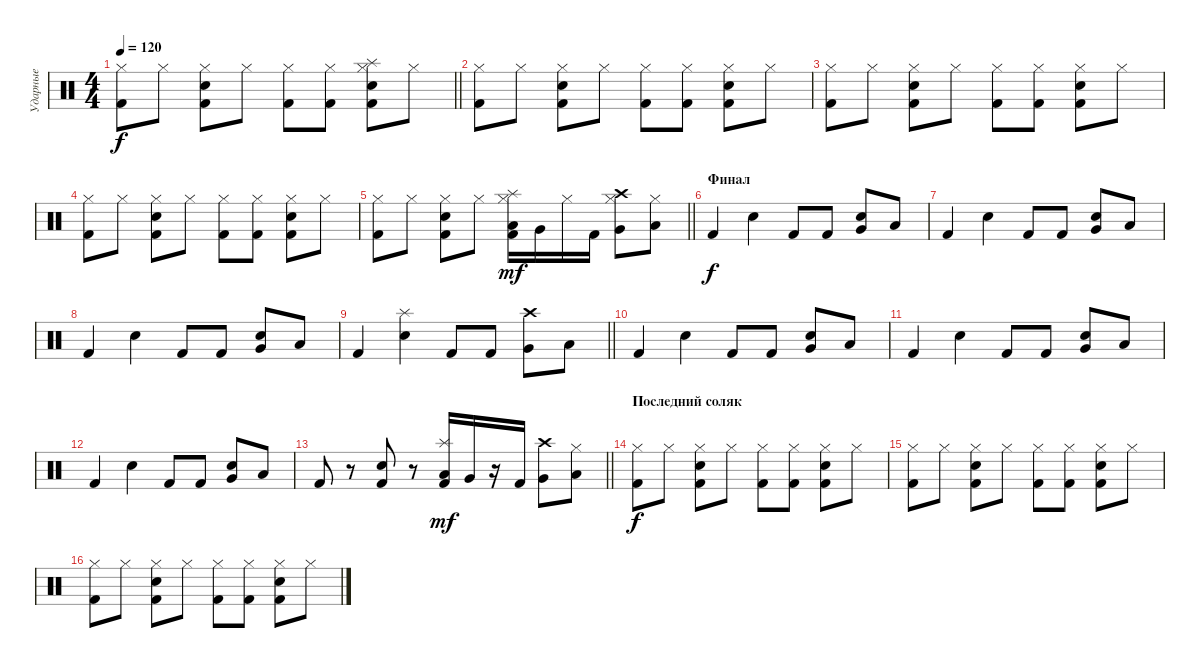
\track ("Ударные" "Ударные") {solo instrument percussion}
\staff {score}
\articulation defaults
\ts (4 4)
\tempo 120
\clef neutral
\barLineRight lightlight
\ks c
("Hi-Hat (closed)" "Kick (hit) 2").8{dy f} "Hi-Hat (closed)".8 ("Hi-Hat (closed)" "Kick (hit) 2" "Electric Snare (hit)").8 "Hi-Hat (closed)".8 ("Hi-Hat (closed)" "Kick (hit) 2").8 ("Hi-Hat (closed)" "Kick (hit) 2").8 ("Hi-Hat (closed)" "Kick (hit) 2" "Electric Snare (hit)" "Splash (hit)").8 "Hi-Hat (closed)".8 |
("Hi-Hat (closed)" "Kick (hit) 2").8 "Hi-Hat (closed)".8 ("Hi-Hat (closed)" "Kick (hit) 2" "Electric Snare (hit)").8 "Hi-Hat (closed)".8 ("Hi-Hat (closed)" "Kick (hit) 2").8 ("Hi-Hat (closed)" "Kick (hit) 2").8 ("Hi-Hat (closed)" "Kick (hit) 2" "Electric Snare (hit)").8 "Hi-Hat (closed)".8 |
("Hi-Hat (closed)" "Kick (hit) 2").8 "Hi-Hat (closed)".8 ("Hi-Hat (closed)" "Kick (hit) 2" "Electric Snare (hit)").8 "Hi-Hat (closed)".8 ("Hi-Hat (closed)" "Kick (hit) 2").8 ("Hi-Hat (closed)" "Kick (hit) 2").8 ("Hi-Hat (closed)" "Kick (hit) 2" "Electric Snare (hit)").8 "Hi-Hat (closed)".8 |
("Hi-Hat (closed)" "Kick (hit) 2").8 "Hi-Hat (closed)".8 ("Hi-Hat (closed)" "Kick (hit) 2" "Electric Snare (hit)").8 "Hi-Hat (closed)".8 ("Hi-Hat (closed)" "Kick (hit) 2").8 ("Hi-Hat (closed)" "Kick (hit) 2").8 ("Hi-Hat (closed)" "Kick (hit) 2" "Electric Snare (hit)").8 "Hi-Hat (closed)".8 |
\barLineRight lightlight
("Hi-Hat (closed)" "Kick (hit) 2").8 "Hi-Hat (closed)".8 ("Hi-Hat (closed)" "Kick (hit) 2" "Electric Snare (hit)").8 "Hi-Hat (closed)".8 ("Low Tom (hit)" "Hi-Hat (closed)" "Kick (hit) 2" "Splash (hit)").16{dy mf} "Very Low Tom (hit)".16 "Hi-Hat (closed)".16 "Kick (hit) 2".16 ("Very Low Tom (hit)" "Hi-Hat (closed)" "Crash high (hit)").8 ("Low Floor Tom (hit)" "Hi-Hat (closed)").8 |
\section ("" "Финал")
"Kick (hit) 2".4{dy f} "Electric Snare (hit)".4 "Kick (hit) 2".8 "Kick (hit) 2".8 ("Electric Snare (hit)" "Very Low Tom (hit)").8 "Low Floor Tom (hit)".8 |
"Kick (hit) 2".4 "Electric Snare (hit)".4 "Kick (hit) 2".8 "Kick (hit) 2".8 ("Electric Snare (hit)" "Very Low Tom (hit)").8 "Low Floor Tom (hit)".8 |
"Kick (hit) 2".4 "Electric Snare (hit)".4 "Kick (hit) 2".8 "Kick (hit) 2".8 ("Electric Snare (hit)" "Very Low Tom (hit)").8 "Low Floor Tom (hit)".8 |
\barLineRight lightlight "Kick (hit) 2".4
("Electric Snare (hit)" "Splash (hit)").4 "Kick (hit) 2".8 "Kick (hit) 2".8 ("Very Low Tom (hit)" "Crash high (hit)").8 "Low Floor Tom (hit)".8 |
"Kick (hit) 2".4 "Electric Snare (hit)".4 "Kick (hit) 2".8 "Kick (hit) 2".8 ("Electric Snare (hit)" "Very Low Tom (hit)").8 "Low Floor Tom (hit)".8 |
"Kick (hit) 2".4 "Electric Snare (hit)".4 "Kick (hit) 2".8 "Kick (hit) 2".8 ("Electric Snare (hit)" "Very Low Tom (hit)").8 "Low Floor Tom (hit)".8 |
"Kick (hit) 2".4 "Electric Snare (hit)".4 "Kick (hit) 2".8 "Kick (hit) 2".8 ("Electric Snare (hit)" "Very Low Tom (hit)").8 "Low Floor Tom (hit)".8 |
\barLineRight lightlight "Kick (hit) 2".8
r.8 ("Kick (hit) 2" "Electric Snare (hit)").8 r.8 ("Low Tom (hit)" "Kick (hit) 2" "Splash (hit)").16{dy mf} "Very Low Tom (hit)".16 r.16 "Kick (hit) 2".16 ("Very Low Tom (hit)" "Crash high (hit)").8 ("Low Floor Tom (hit)" "Hi-Hat (closed)").8 |
\section ("" "Последний соляк")
("Hi-Hat (closed)" "Kick (hit) 2").8{dy f} "Hi-Hat (closed)".8 ("Hi-Hat (closed)" "Kick (hit) 2" "Electric Snare (hit)").8 "Hi-Hat (closed)".8 ("Hi-Hat (closed)" "Kick (hit) 2").8 ("Hi-Hat (closed)" "Kick (hit) 2").8 ("Hi-Hat (closed)" "Kick (hit) 2" "Electric Snare (hit)").8 "Hi-Hat (closed)".8 |
("Hi-Hat (closed)" "Kick (hit) 2").8 "Hi-Hat (closed)".8 ("Hi-Hat (closed)" "Kick (hit) 2" "Electric Snare (hit)").8 "Hi-Hat (closed)".8 ("Hi-Hat (closed)" "Kick (hit) 2").8 ("Hi-Hat (closed)" "Kick (hit) 2").8 ("Hi-Hat (closed)" "Kick (hit) 2" "Electric Snare (hit)").8 "Hi-Hat (closed)".8 |
("Hi-Hat (closed)" "Kick (hit) 2").8 "Hi-Hat (closed)".8 ("Hi-Hat (closed)" "Kick (hit) 2" "Electric Snare (hit)").8 "Hi-Hat (closed)".8 ("Hi-Hat (closed)" "Kick (hit) 2").8 ("Hi-Hat (closed)" "Kick (hit) 2").8 ("Hi-Hat (closed)" "Kick (hit) 2" "Electric Snare (hit)").8 "Hi-Hat (closed)".8
